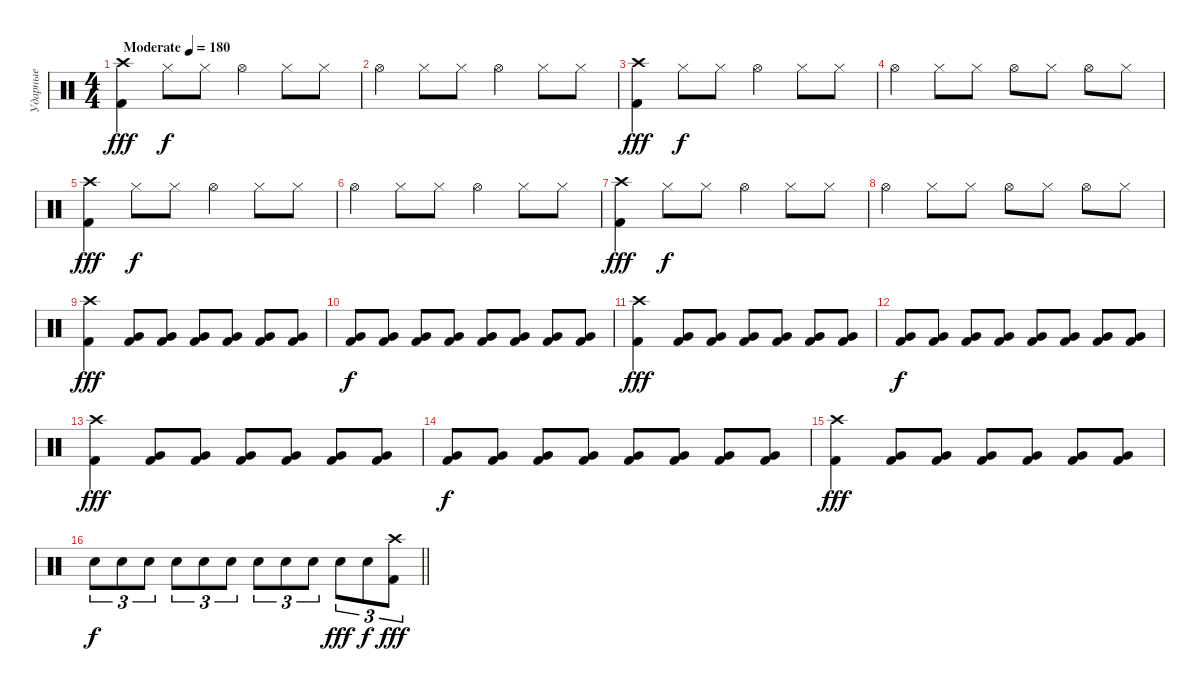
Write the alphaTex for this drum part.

\track ("Ударные" "Ударные") {instrument percussion}
\staff
\articulation defaults
\ts (4 4)
\tempo (180 "Moderate")
\clef neutral
\ks c
("Kick (hit) 2" "Crash high (hit)").4{dy fff} "Hi-Hat (closed)".8{dy f} "Hi-Hat (closed)".8 "Hi-Hat (open)".4 "Hi-Hat (closed)".8 "Hi-Hat (closed)".8 |
"Hi-Hat (open)".4 "Hi-Hat (closed)".8 "Hi-Hat (closed)".8 "Hi-Hat (open)".4 "Hi-Hat (closed)".8 "Hi-Hat (closed)".8 |
("Kick (hit) 2" "Crash high (hit)").4{dy fff} "Hi-Hat (closed)".8{dy f} "Hi-Hat (closed)".8 "Hi-Hat (open)".4 "Hi-Hat (closed)".8 "Hi-Hat (closed)".8 |
"Hi-Hat (open)".4 "Hi-Hat (closed)".8 "Hi-Hat (closed)".8 "Hi-Hat (open)".8 "Hi-Hat (closed)".8 "Hi-Hat (open)".8 "Hi-Hat (closed)".8 |
("Kick (hit) 2" "Crash high (hit)").4{dy fff} "Hi-Hat (closed)".8{dy f} "Hi-Hat (closed)".8 "Hi-Hat (open)".4 "Hi-Hat (closed)".8 "Hi-Hat (closed)".8 |
"Hi-Hat (open)".4 "Hi-Hat (closed)".8 "Hi-Hat (closed)".8 "Hi-Hat (open)".4 "Hi-Hat (closed)".8 "Hi-Hat (closed)".8 |
("Kick (hit) 2" "Crash high (hit)").4{dy fff} "Hi-Hat (closed)".8{dy f} "Hi-Hat (closed)".8 "Hi-Hat (open)".4 "Hi-Hat (closed)".8 "Hi-Hat (closed)".8 |
"Hi-Hat (open)".4 "Hi-Hat (closed)".8 "Hi-Hat (closed)".8 "Hi-Hat (open)".8 "Hi-Hat (closed)".8 "Hi-Hat (open)".8 "Hi-Hat (closed)".8 |
("Kick (hit) 2" "Crash high (hit)").4{dy fff} ("Kick (hit) 2" "Very Low Tom (hit)").8 ("Kick (hit) 2" "Very Low Tom (hit)").8 ("Kick (hit) 2" "Very Low Tom (hit)").8 ("Kick (hit) 2" "Very Low Tom (hit)").8 ("Kick (hit) 2" "Very Low Tom (hit)").8 ("Kick (hit) 2" "Very Low Tom (hit)").8 |
("Kick (hit) 2" "Very Low Tom (hit)").8{dy f} ("Kick (hit) 2" "Very Low Tom (hit)").8 ("Kick (hit) 2" "Very Low Tom (hit)").8 ("Kick (hit) 2" "Very Low Tom (hit)").8 ("Kick (hit) 2" "Very Low Tom (hit)").8 ("Kick (hit) 2" "Very Low Tom (hit)").8 ("Kick (hit) 2" "Very Low Tom (hit)").8 ("Kick (hit) 2" "Very Low Tom (hit)").8 |
("Kick (hit) 2" "Crash high (hit)").4{dy fff} ("Kick (hit) 2" "Very Low Tom (hit)").8 ("Kick (hit) 2" "Very Low Tom (hit)").8 ("Kick (hit) 2" "Very Low Tom (hit)").8 ("Kick (hit) 2" "Very Low Tom (hit)").8 ("Kick (hit) 2" "Very Low Tom (hit)").8 ("Kick (hit) 2" "Very Low Tom (hit)").8 |
("Kick (hit) 2" "Very Low Tom (hit)").8{dy f} ("Kick (hit) 2" "Very Low Tom (hit)").8 ("Kick (hit) 2" "Very Low Tom (hit)").8 ("Kick (hit) 2" "Very Low Tom (hit)").8 ("Kick (hit) 2" "Very Low Tom (hit)").8 ("Kick (hit) 2" "Very Low Tom (hit)").8 ("Kick (hit) 2" "Very Low Tom (hit)").8 ("Kick (hit) 2" "Very Low Tom (hit)").8 |
("Kick (hit) 2" "Crash high (hit)").4{dy fff} ("Kick (hit) 2" "Very Low Tom (hit)").8 ("Kick (hit) 2" "Very Low Tom (hit)").8 ("Kick (hit) 2" "Very Low Tom (hit)").8 ("Kick (hit) 2" "Very Low Tom (hit)").8 ("Kick (hit) 2" "Very Low Tom (hit)").8 ("Kick (hit) 2" "Very Low Tom (hit)").8 |
("Kick (hit) 2" "Very Low Tom (hit)").8{dy f} ("Kick (hit) 2" "Very Low Tom (hit)").8 ("Kick (hit) 2" "Very Low Tom (hit)").8 ("Kick (hit) 2" "Very Low Tom (hit)").8 ("Kick (hit) 2" "Very Low Tom (hit)").8 ("Kick (hit) 2" "Very Low Tom (hit)").8 ("Kick (hit) 2" "Very Low Tom (hit)").8 ("Kick (hit) 2" "Very Low Tom (hit)").8 |
("Kick (hit) 2" "Crash high (hit)").4{dy fff} ("Kick (hit) 2" "Very Low Tom (hit)").8 ("Kick (hit) 2" "Very Low Tom (hit)").8 ("Kick (hit) 2" "Very Low Tom (hit)").8 ("Kick (hit) 2" "Very Low Tom (hit)").8 ("Kick (hit) 2" "Very Low Tom (hit)").8 ("Kick (hit) 2" "Very Low Tom (hit)").8 |
\barLineRight lightlight "Snare (hit) 2".8{tu (3 2) dy f} "Snare (hit) 2".8{tu (3 2)} "Snare (hit) 2".8{tu (3 2)} "Snare (hit) 2".8{tu (3 2)} "Snare (hit) 2".8{tu (3 2)} "Electric Snare (hit)".8{tu (3 2)} "Electric Snare (hit)".8{tu (3 2)} "Electric Snare (hit)".8{tu (3 2)} "Snare (hit) 2".8{tu (3 2)} "Snare (hit) 2".8{tu (3 2) dy fff} "Snare (hit) 2".8{tu (3 2) dy f}
("Kick (hit) 2" "Crash high (hit)").8{tu (3 2) dy fff}
